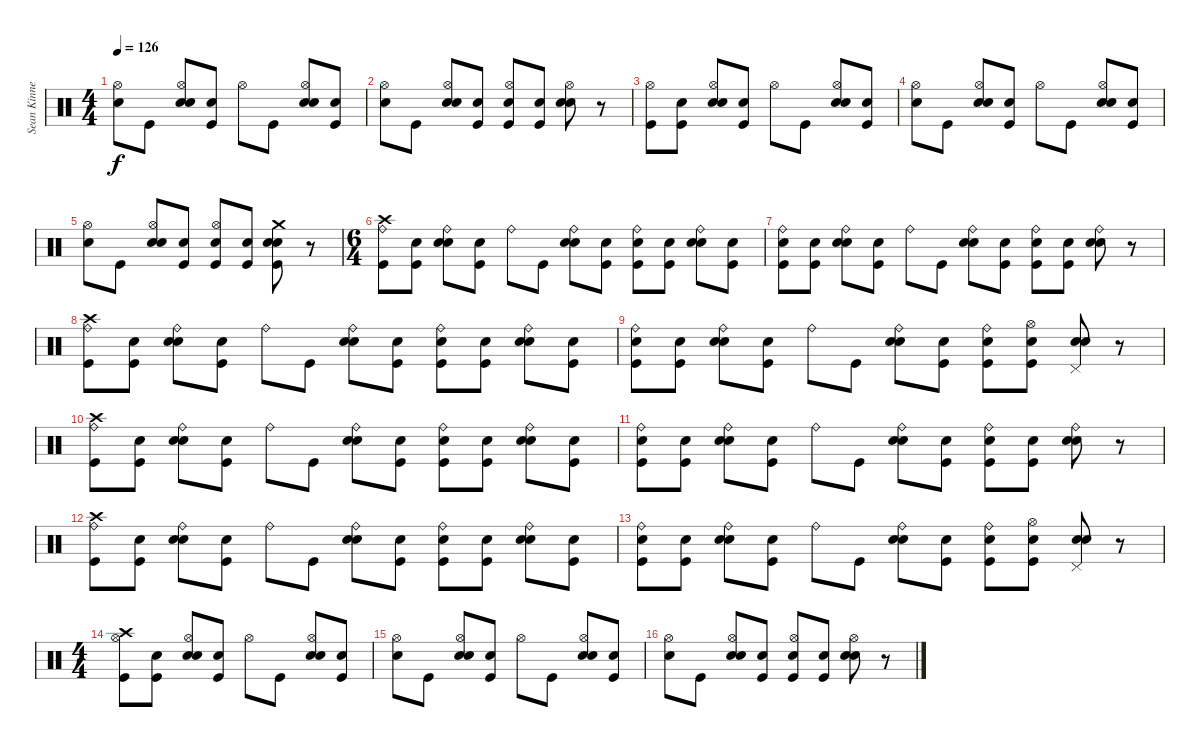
\track ("Sean Kinney (Drums)" "Sean Kinne") {instrument percussion}
\staff {score}
\articulation defaults
\ts (4 4)
\tempo 126
\clef neutral
\ks c
("Snare (hit)" "Hi-Hat (open)").8{dy f} "Kick (hit)".8 ("Snare (hit)" "Electric Snare (hit)" "Hi-Hat (open)").8 ("Snare (hit)" "Kick (hit)").8 "Hi-Hat (open)".8 "Kick (hit)".8 ("Snare (hit)" "Electric Snare (hit)" "Hi-Hat (open)").8 ("Snare (hit)" "Kick (hit)").8 |
("Snare (hit)" "Hi-Hat (open)").8 "Kick (hit)".8 ("Snare (hit)" "Hi-Hat (open)" "Electric Snare (hit)").8 ("Snare (hit)" "Kick (hit)").8 ("Snare (hit)" "Hi-Hat (open)" "Kick (hit)").8 ("Snare (hit)" "Kick (hit)").8 ("Snare (hit)" "Hi-Hat (open)" "Electric Snare (hit)").8 r.8 |
("Kick (hit)" "Hi-Hat (open)").8 ("Snare (hit)" "Kick (hit)").8 ("Snare (hit)" "Electric Snare (hit)" "Hi-Hat (open)").8 ("Snare (hit)" "Kick (hit)").8 "Hi-Hat (open)".8 "Kick (hit)".8 ("Snare (hit)" "Electric Snare (hit)" "Hi-Hat (open)").8 ("Snare (hit)" "Kick (hit)").8 |
("Snare (hit)" "Hi-Hat (open)").8 "Kick (hit)".8 ("Snare (hit)" "Hi-Hat (open)" "Electric Snare (hit)").8 ("Snare (hit)" "Kick (hit)").8 "Hi-Hat (open)".8 "Kick (hit)".8 ("Snare (hit)" "Hi-Hat (open)" "Electric Snare (hit)").8 ("Snare (hit)" "Kick (hit)").8 |
("Snare (hit)" "Hi-Hat (open)").8 "Kick (hit)".8 ("Snare (hit)" "Hi-Hat (open)" "Electric Snare (hit)").8 ("Snare (hit)" "Kick (hit)").8 ("Snare (hit)" "Hi-Hat (open)" "Kick (hit)").8 ("Snare (hit)" "Kick (hit)").8 ("Snare (hit)" "Electric Snare (hit)" "Kick (hit)" "Crash medium (hit)").8 r.8 |
\ts (6 4)
("Ride (bell)" "Kick (hit)" "Crash high (hit)").8 ("Snare (hit)" "Kick (hit)").8 ("Snare (hit)" "Electric Snare (hit)" "Ride (bell)").8 ("Snare (hit)" "Kick (hit)").8 "Ride (bell)".8 "Kick (hit)".8 ("Snare (hit)" "Ride (bell)" "Electric Snare (hit)").8 ("Snare (hit)" "Kick (hit)").8 ("Snare (hit)" "Kick (hit)" "Ride (bell)").8 ("Snare (hit)" "Kick (hit)").8 ("Snare (hit)" "Electric Snare (hit)" "Ride (bell)").8 ("Snare (hit)" "Kick (hit)").8 |
("Snare (hit)" "Ride (bell)" "Kick (hit)").8 ("Snare (hit)" "Kick (hit)").8 ("Snare (hit)" "Electric Snare (hit)" "Ride (bell)").8 ("Snare (hit)" "Kick (hit)").8 "Ride (bell)".8 "Kick (hit)".8 ("Snare (hit)" "Ride (bell)" "Electric Snare (hit)").8 ("Snare (hit)" "Kick (hit)").8 ("Snare (hit)" "Kick (hit)" "Ride (bell)").8 ("Snare (hit)" "Kick (hit)").8 ("Snare (hit)" "Ride (bell)" "Electric Snare (hit)").8 r.8 |
("Ride (bell)" "Kick (hit)" "Crash high (hit)").8 ("Snare (hit)" "Kick (hit)").8 ("Snare (hit)" "Ride (bell)" "Electric Snare (hit)").8 ("Snare (hit)" "Kick (hit)").8 "Ride (bell)".8 "Kick (hit)".8 ("Snare (hit)" "Electric Snare (hit)" "Ride (bell)").8 ("Snare (hit)" "Kick (hit)").8 ("Snare (hit)" "Kick (hit)" "Ride (bell)").8 ("Snare (hit)" "Kick (hit)").8 ("Snare (hit)" "Electric Snare (hit)" "Ride (bell)").8 ("Snare (hit)" "Kick (hit)").8 |
("Snare (hit)" "Ride (bell)" "Kick (hit)").8 ("Snare (hit)" "Kick (hit)").8 ("Snare (hit)" "Electric Snare (hit)" "Ride (bell)").8 ("Snare (hit)" "Kick (hit)").8 "Ride (bell)".8 "Kick (hit)".8 ("Snare (hit)" "Electric Snare (hit)" "Ride (bell)").8 ("Snare (hit)" "Kick (hit)").8 ("Snare (hit)" "Kick (hit)" "Ride (bell)").8 ("Snare (hit)" "Kick (hit)" "Hi-Hat (open)").8 ("Snare (hit)" "Electric Snare (hit)" "Pedal Hi-Hat (hit)").8 r.8 |
("Ride (bell)" "Kick (hit)" "Crash high (hit)").8 ("Snare (hit)" "Kick (hit)").8 ("Snare (hit)" "Ride (bell)" "Electric Snare (hit)").8 ("Snare (hit)" "Kick (hit)").8 "Ride (bell)".8 "Kick (hit)".8 ("Snare (hit)" "Ride (bell)" "Electric Snare (hit)").8 ("Snare (hit)" "Kick (hit)").8 ("Snare (hit)" "Ride (bell)" "Kick (hit)").8 ("Snare (hit)" "Kick (hit)").8 ("Snare (hit)" "Electric Snare (hit)" "Ride (bell)").8 ("Snare (hit)" "Kick (hit)").8 |
("Snare (hit)" "Ride (bell)" "Kick (hit)").8 ("Snare (hit)" "Kick (hit)").8 ("Snare (hit)" "Ride (bell)" "Electric Snare (hit)").8 ("Snare (hit)" "Kick (hit)").8 "Ride (bell)".8 "Kick (hit)".8 ("Snare (hit)" "Electric Snare (hit)" "Ride (bell)").8 ("Snare (hit)" "Kick (hit)").8 ("Snare (hit)" "Ride (bell)" "Kick (hit)").8 ("Snare (hit)" "Kick (hit)").8 ("Snare (hit)" "Ride (bell)" "Electric Snare (hit)").8 r.8 |
("Ride (bell)" "Kick (hit)" "Crash high (hit)").8 ("Snare (hit)" "Kick (hit)").8 ("Snare (hit)" "Ride (bell)" "Electric Snare (hit)").8 ("Snare (hit)" "Kick (hit)").8 "Ride (bell)".8 "Kick (hit)".8 ("Snare (hit)" "Ride (bell)" "Electric Snare (hit)").8 ("Snare (hit)" "Kick (hit)").8 ("Snare (hit)" "Kick (hit)" "Ride (bell)").8 ("Snare (hit)" "Kick (hit)").8 ("Snare (hit)" "Electric Snare (hit)" "Ride (bell)").8 ("Snare (hit)" "Kick (hit)").8 |
("Snare (hit)" "Ride (bell)" "Kick (hit)").8 ("Snare (hit)" "Kick (hit)").8 ("Snare (hit)" "Electric Snare (hit)" "Ride (bell)").8 ("Snare (hit)" "Kick (hit)").8 "Ride (bell)".8 "Kick (hit)".8 ("Snare (hit)" "Ride (bell)" "Electric Snare (hit)").8 ("Snare (hit)" "Kick (hit)").8 ("Snare (hit)" "Ride (bell)" "Kick (hit)").8 ("Snare (hit)" "Kick (hit)" "Hi-Hat (open)").8 ("Snare (hit)" "Electric Snare (hit)" "Pedal Hi-Hat (hit)").8 r.8 |
\ts (4 4)
("Kick (hit)" "Hi-Hat (open)" "Crash high (hit)").8 ("Snare (hit)" "Kick (hit)").8 ("Snare (hit)" "Hi-Hat (open)" "Electric Snare (hit)").8 ("Snare (hit)" "Kick (hit)").8 "Hi-Hat (open)".8 "Kick (hit)".8 ("Snare (hit)" "Electric Snare (hit)" "Hi-Hat (open)").8 ("Snare (hit)" "Kick (hit)").8 |
("Snare (hit)" "Hi-Hat (open)").8 "Kick (hit)".8 ("Snare (hit)" "Electric Snare (hit)" "Hi-Hat (open)").8 ("Snare (hit)" "Kick (hit)").8 "Hi-Hat (open)".8 "Kick (hit)".8 ("Snare (hit)" "Hi-Hat (open)" "Electric Snare (hit)").8 ("Snare (hit)" "Kick (hit)").8 |
("Snare (hit)" "Hi-Hat (open)").8 "Kick (hit)".8 ("Snare (hit)" "Electric Snare (hit)" "Hi-Hat (open)").8 ("Snare (hit)" "Kick (hit)").8 ("Snare (hit)" "Kick (hit)" "Hi-Hat (open)").8 ("Snare (hit)" "Kick (hit)").8 ("Snare (hit)" "Electric Snare (hit)" "Hi-Hat (open)").8 r.8
